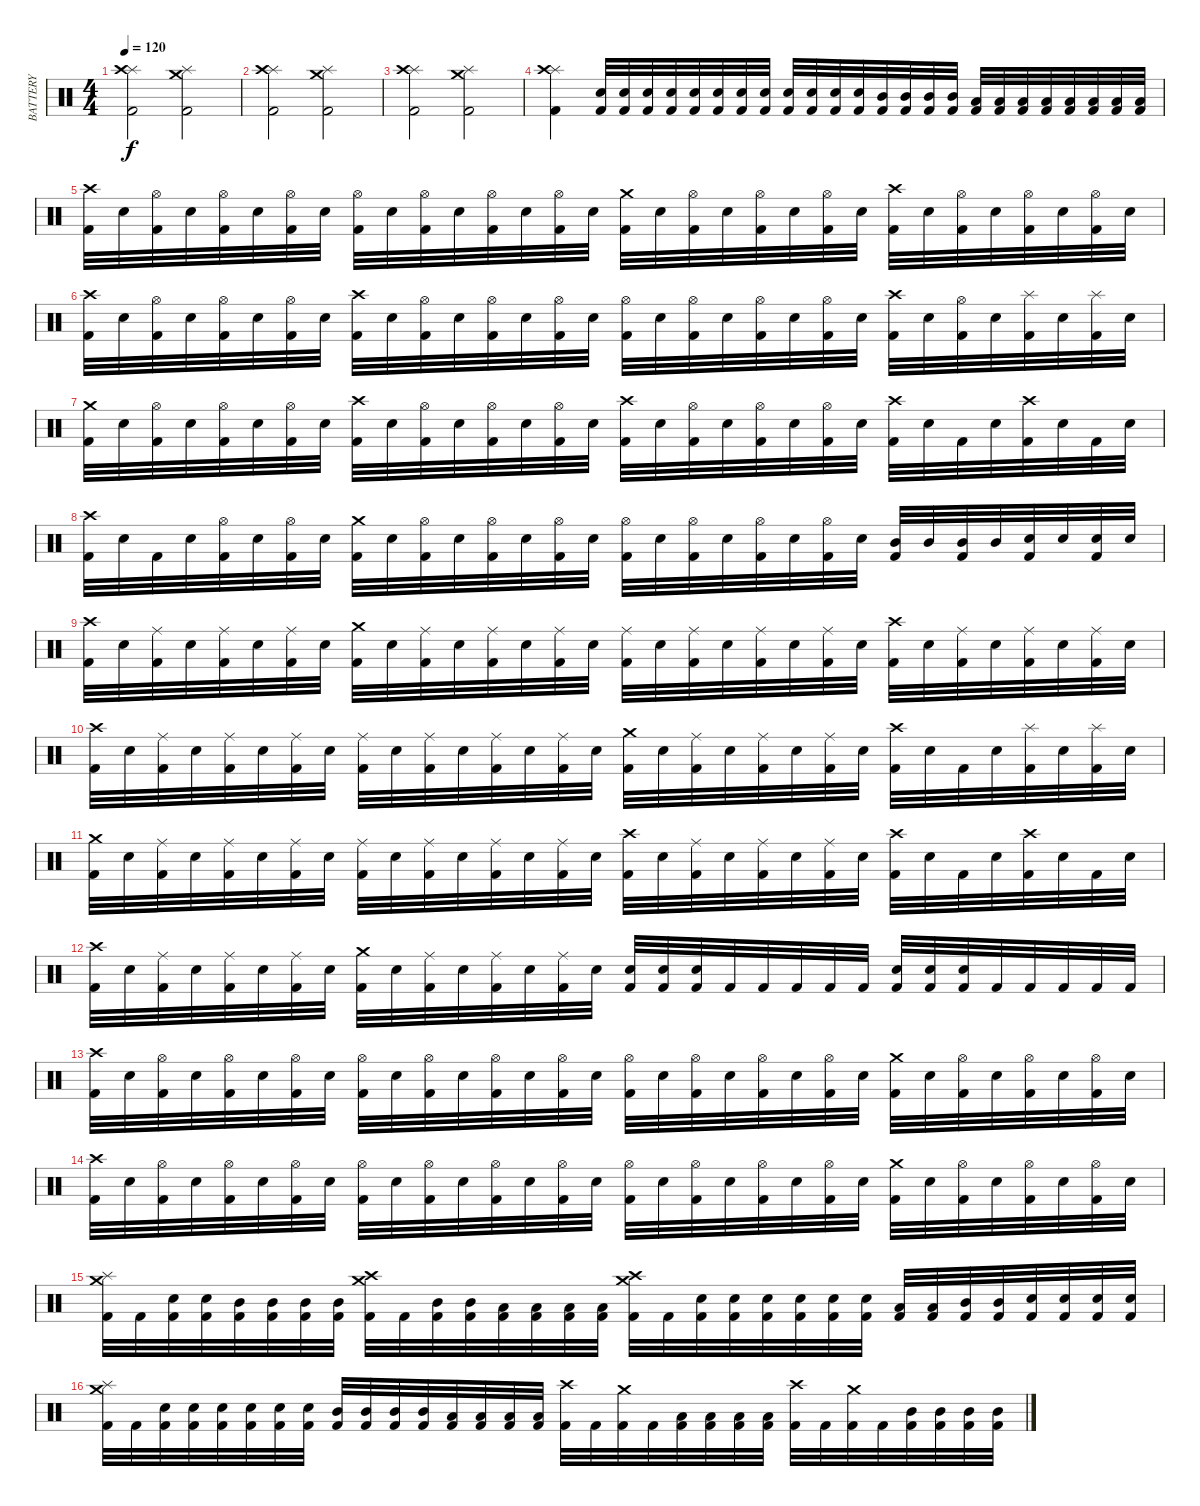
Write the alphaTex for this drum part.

\track ("BATTERY" "BATTERY") {instrument percussion}
\staff {score}
\articulation defaults
\ts (4 4)
\tempo 120
\clef neutral
\ks c
("Kick (hit) 2" "Splash (hit)" "Crash high (hit)").2{dy f} ("Kick (hit) 2" "Splash (hit)" "Crash medium (hit)").2 |
("Kick (hit) 2" "Splash (hit)" "Crash high (hit)").2 ("Kick (hit) 2" "Splash (hit)" "Crash medium (hit)").2 |
("Kick (hit) 2" "Splash (hit)" "Crash high (hit)").2 ("Kick (hit) 2" "Splash (hit)" "Crash medium (hit)").2 |
("Kick (hit) 2" "Splash (hit)" "Crash high (hit)").4 ("Kick (hit) 2" "Snare (hit) 2").32 ("Kick (hit) 2" "Snare (hit) 2").32 ("Kick (hit) 2" "Snare (hit) 2").32 ("Kick (hit) 2" "Snare (hit) 2").32 ("Kick (hit) 2" "Snare (hit) 2").32 ("Kick (hit) 2" "Snare (hit) 2").32 ("Kick (hit) 2" "Snare (hit) 2").32 ("Kick (hit) 2" "Snare (hit) 2").32 ("Kick (hit) 2" "Snare (hit) 2").32 ("Kick (hit) 2" "Snare (hit) 2").32 ("Kick (hit) 2" "Snare (hit) 2").32 ("Kick (hit) 2" "Snare (hit) 2").32 ("Kick (hit) 2" "Mid Tom (hit)").32 ("Kick (hit) 2" "Mid Tom (hit)").32 ("Kick (hit) 2" "Mid Tom (hit)").32 ("Kick (hit) 2" "Mid Tom (hit)").32 ("Kick (hit) 2" "Low Tom (hit)").32 ("Kick (hit) 2" "Low Tom (hit)").32 ("Kick (hit) 2" "Low Tom (hit)").32 ("Kick (hit) 2" "Low Tom (hit)").32 ("Kick (hit) 2" "Low Tom (hit)").32 ("Kick (hit) 2" "Low Tom (hit)").32 ("Kick (hit) 2" "Low Tom (hit)").32 ("Kick (hit) 2" "Low Tom (hit)").32 |
("Kick (hit) 2" "Crash high (hit)").32 "Snare (hit) 2".32 ("Kick (hit) 2" "Hi-Hat (open)").32 "Snare (hit) 2".32 ("Kick (hit) 2" "Hi-Hat (open)").32 "Snare (hit) 2".32 ("Kick (hit) 2" "Hi-Hat (open)").32 "Snare (hit) 2".32 ("Kick (hit) 2" "Hi-Hat (open)").32 "Snare (hit) 2".32 ("Kick (hit) 2" "Hi-Hat (open)").32 "Snare (hit) 2".32 ("Kick (hit) 2" "Hi-Hat (open)").32 "Snare (hit) 2".32 ("Kick (hit) 2" "Hi-Hat (open)").32 "Snare (hit) 2".32 ("Kick (hit) 2" "Crash medium (hit)").32 "Snare (hit) 2".32 ("Kick (hit) 2" "Hi-Hat (open)").32 "Snare (hit) 2".32 ("Kick (hit) 2" "Hi-Hat (open)").32 "Snare (hit) 2".32 ("Kick (hit) 2" "Hi-Hat (open)").32 "Snare (hit) 2".32 ("Kick (hit) 2" "Crash high (hit)").32 "Snare (hit) 2".32 ("Kick (hit) 2" "Hi-Hat (open)").32 "Snare (hit) 2".32 ("Kick (hit) 2" "Hi-Hat (open)").32 "Snare (hit) 2".32 ("Kick (hit) 2" "Hi-Hat (open)").32 "Snare (hit) 2".32 |
("Kick (hit) 2" "Crash high (hit)").32 "Snare (hit) 2".32 ("Kick (hit) 2" "Hi-Hat (open)").32 "Snare (hit) 2".32 ("Kick (hit) 2" "Hi-Hat (open)").32 "Snare (hit) 2".32 ("Kick (hit) 2" "Hi-Hat (open)").32 "Snare (hit) 2".32 ("Kick (hit) 2" "Crash high (hit)").32 "Snare (hit) 2".32 ("Kick (hit) 2" "Hi-Hat (open)").32 "Snare (hit) 2".32 ("Kick (hit) 2" "Hi-Hat (open)").32 "Snare (hit) 2".32 ("Kick (hit) 2" "Hi-Hat (open)").32 "Snare (hit) 2".32 ("Kick (hit) 2" "Hi-Hat (open)").32 "Snare (hit) 2".32 ("Kick (hit) 2" "Hi-Hat (open)").32 "Snare (hit) 2".32 ("Kick (hit) 2" "Hi-Hat (open)").32 "Snare (hit) 2".32 ("Kick (hit) 2" "Hi-Hat (open)").32 "Snare (hit) 2".32 ("Kick (hit) 2" "Crash high (hit)").32 "Snare (hit) 2".32 ("Kick (hit) 2" "Hi-Hat (open)").32 "Snare (hit) 2".32 ("Kick (hit) 2" "Splash (hit)").32 "Snare (hit) 2".32 ("Kick (hit) 2" "Splash (hit)").32 "Snare (hit) 2".32 |
("Kick (hit) 2" "Crash medium (hit)").32 "Snare (hit) 2".32 ("Kick (hit) 2" "Hi-Hat (open)").32 "Snare (hit) 2".32 ("Kick (hit) 2" "Hi-Hat (open)").32 "Snare (hit) 2".32 ("Kick (hit) 2" "Hi-Hat (open)").32 "Snare (hit) 2".32 ("Kick (hit) 2" "Crash high (hit)").32 "Snare (hit) 2".32 ("Kick (hit) 2" "Hi-Hat (open)").32 "Snare (hit) 2".32 ("Kick (hit) 2" "Hi-Hat (open)").32 "Snare (hit) 2".32 ("Kick (hit) 2" "Hi-Hat (open)").32 "Snare (hit) 2".32 ("Kick (hit) 2" "Crash high (hit)").32 "Snare (hit) 2".32 ("Kick (hit) 2" "Hi-Hat (open)").32 "Snare (hit) 2".32 ("Kick (hit) 2" "Hi-Hat (open)").32 "Snare (hit) 2".32 ("Kick (hit) 2" "Hi-Hat (open)").32 "Snare (hit) 2".32 ("Kick (hit) 2" "Crash high (hit)").32 "Snare (hit) 2".32 "Kick (hit) 2".32 "Snare (hit) 2".32 ("Kick (hit) 2" "Crash high (hit)").32 "Snare (hit) 2".32 "Kick (hit) 2".32 "Snare (hit) 2".32 |
("Kick (hit) 2" "Crash high (hit)").32 "Snare (hit) 2".32 "Kick (hit) 2".32 "Snare (hit) 2".32 ("Kick (hit) 2" "Hi-Hat (open)").32 "Snare (hit) 2".32 ("Kick (hit) 2" "Hi-Hat (open)").32 "Snare (hit) 2".32 ("Kick (hit) 2" "Crash medium (hit)").32 "Snare (hit) 2".32 ("Kick (hit) 2" "Hi-Hat (open)").32 "Snare (hit) 2".32 ("Kick (hit) 2" "Hi-Hat (open)").32 "Snare (hit) 2".32 ("Kick (hit) 2" "Hi-Hat (open)").32 "Snare (hit) 2".32 ("Kick (hit) 2" "Hi-Hat (open)").32 "Snare (hit) 2".32 ("Kick (hit) 2" "Hi-Hat (open)").32 "Snare (hit) 2".32 ("Kick (hit) 2" "Hi-Hat (open)").32 "Snare (hit) 2".32 ("Kick (hit) 2" "Hi-Hat (open)").32 "Snare (hit) 2".32 ("Kick (hit) 2" "Mid Tom (hit)").32 "Mid Tom (hit)".32 ("Kick (hit) 2" "Mid Tom (hit)").32 "Mid Tom (hit)".32 ("Kick (hit) 2" "Snare (hit) 2").32 "Snare (hit) 2".32 ("Kick (hit) 2" "Snare (hit) 2").32 "Snare (hit) 2".32 |
("Kick (hit) 2" "Crash high (hit)").32 "Snare (hit) 2".32 ("Kick (hit) 2" "Ride (middle)").32 "Snare (hit) 2".32 ("Kick (hit) 2" "Ride (middle)").32 "Snare (hit) 2".32 ("Kick (hit) 2" "Ride (middle)").32 "Snare (hit) 2".32 ("Kick (hit) 2" "Crash medium (hit)").32 "Snare (hit) 2".32 ("Kick (hit) 2" "Ride (middle)").32 "Snare (hit) 2".32 ("Kick (hit) 2" "Ride (middle)").32 "Snare (hit) 2".32 ("Kick (hit) 2" "Ride (middle)").32 "Snare (hit) 2".32 ("Kick (hit) 2" "Ride (middle)").32 "Snare (hit) 2".32 ("Kick (hit) 2" "Ride (middle)").32 "Snare (hit) 2".32 ("Kick (hit) 2" "Ride (middle)").32 "Snare (hit) 2".32 ("Kick (hit) 2" "Ride (middle)").32 "Snare (hit) 2".32 ("Kick (hit) 2" "Crash high (hit)").32 "Snare (hit) 2".32 ("Kick (hit) 2" "Ride (middle)").32 "Snare (hit) 2".32 ("Kick (hit) 2" "Ride (middle)").32 "Snare (hit) 2".32 ("Kick (hit) 2" "Ride (middle)").32 "Snare (hit) 2".32 |
("Kick (hit) 2" "Crash high (hit)").32 "Snare (hit) 2".32 ("Kick (hit) 2" "Ride (middle)").32 "Snare (hit) 2".32 ("Kick (hit) 2" "Ride (middle)").32 "Snare (hit) 2".32 ("Kick (hit) 2" "Ride (middle)").32 "Snare (hit) 2".32 ("Kick (hit) 2" "Ride (middle)").32 "Snare (hit) 2".32 ("Kick (hit) 2" "Ride (middle)").32 "Snare (hit) 2".32 ("Kick (hit) 2" "Ride (middle)").32 "Snare (hit) 2".32 ("Kick (hit) 2" "Ride (middle)").32 "Snare (hit) 2".32 ("Kick (hit) 2" "Crash medium (hit)").32 "Snare (hit) 2".32 ("Kick (hit) 2" "Ride (middle)").32 "Snare (hit) 2".32 ("Kick (hit) 2" "Ride (middle)").32 "Snare (hit) 2".32 ("Kick (hit) 2" "Ride (middle)").32 "Snare (hit) 2".32 ("Kick (hit) 2" "Crash high (hit)").32 "Snare (hit) 2".32 "Kick (hit) 2".32 "Snare (hit) 2".32 ("Kick (hit) 2" "Splash (hit)").32 "Snare (hit) 2".32 ("Kick (hit) 2" "Splash (hit)").32 "Snare (hit) 2".32 |
("Kick (hit) 2" "Crash medium (hit)").32 "Snare (hit) 2".32 ("Kick (hit) 2" "Ride (middle)").32 "Snare (hit) 2".32 ("Kick (hit) 2" "Ride (middle)").32 "Snare (hit) 2".32 ("Kick (hit) 2" "Ride (middle)").32 "Snare (hit) 2".32 ("Kick (hit) 2" "Ride (middle)").32 "Snare (hit) 2".32 ("Kick (hit) 2" "Ride (middle)").32 "Snare (hit) 2".32 ("Kick (hit) 2" "Ride (middle)").32 "Snare (hit) 2".32 ("Kick (hit) 2" "Ride (middle)").32 "Snare (hit) 2".32 ("Kick (hit) 2" "Crash high (hit)").32 "Snare (hit) 2".32 ("Kick (hit) 2" "Ride (middle)").32 "Snare (hit) 2".32 ("Kick (hit) 2" "Ride (middle)").32 "Snare (hit) 2".32 ("Kick (hit) 2" "Ride (middle)").32 "Snare (hit) 2".32 ("Kick (hit) 2" "Crash high (hit)").32 "Snare (hit) 2".32 "Kick (hit) 2".32 "Snare (hit) 2".32 ("Kick (hit) 2" "Crash high (hit)").32 "Snare (hit) 2".32 "Kick (hit) 2".32 "Snare (hit) 2".32 |
("Kick (hit) 2" "Crash high (hit)").32 "Snare (hit) 2".32 ("Kick (hit) 2" "Ride (middle)").32 "Snare (hit) 2".32 ("Kick (hit) 2" "Ride (middle)").32 "Snare (hit) 2".32 ("Kick (hit) 2" "Ride (middle)").32 "Snare (hit) 2".32 ("Kick (hit) 2" "Crash medium (hit)").32 "Snare (hit) 2".32 ("Kick (hit) 2" "Ride (middle)").32 "Snare (hit) 2".32 ("Kick (hit) 2" "Ride (middle)").32 "Snare (hit) 2".32 ("Kick (hit) 2" "Ride (middle)").32 "Snare (hit) 2".32 ("Kick (hit) 2" "Snare (hit) 2").32 ("Kick (hit) 2" "Snare (hit) 2").32 ("Kick (hit) 2" "Snare (hit) 2").32 "Kick (hit) 2".32 "Kick (hit) 2".32 "Kick (hit) 2".32 "Kick (hit) 2".32 "Kick (hit) 2".32 ("Kick (hit) 2" "Snare (hit) 2").32 ("Kick (hit) 2" "Snare (hit) 2").32 ("Kick (hit) 2" "Snare (hit) 2").32 "Kick (hit) 2".32 "Kick (hit) 2".32 "Kick (hit) 2".32 "Kick (hit) 2".32 "Kick (hit) 2".32 |
("Kick (hit) 2" "Crash high (hit)").32 "Snare (hit) 2".32 ("Kick (hit) 2" "Hi-Hat (open)").32 "Snare (hit) 2".32 ("Kick (hit) 2" "Hi-Hat (open)").32 "Snare (hit) 2".32 ("Kick (hit) 2" "Hi-Hat (open)").32 "Snare (hit) 2".32 ("Kick (hit) 2" "Hi-Hat (open)").32 "Snare (hit) 2".32 ("Kick (hit) 2" "Hi-Hat (open)").32 "Snare (hit) 2".32 ("Kick (hit) 2" "Hi-Hat (open)").32 "Snare (hit) 2".32 ("Kick (hit) 2" "Hi-Hat (open)").32 "Snare (hit) 2".32 ("Kick (hit) 2" "Hi-Hat (open)").32 "Snare (hit) 2".32 ("Kick (hit) 2" "Hi-Hat (open)").32 "Snare (hit) 2".32 ("Kick (hit) 2" "Hi-Hat (open)").32 "Snare (hit) 2".32 ("Kick (hit) 2" "Hi-Hat (open)").32 "Snare (hit) 2".32 ("Kick (hit) 2" "Crash medium (hit)").32 "Snare (hit) 2".32 ("Kick (hit) 2" "Hi-Hat (open)").32 "Snare (hit) 2".32 ("Kick (hit) 2" "Hi-Hat (open)").32 "Snare (hit) 2".32 ("Kick (hit) 2" "Hi-Hat (open)").32 "Snare (hit) 2".32 |
("Kick (hit) 2" "Crash high (hit)").32 "Snare (hit) 2".32 ("Kick (hit) 2" "Hi-Hat (open)").32 "Snare (hit) 2".32 ("Kick (hit) 2" "Hi-Hat (open)").32 "Snare (hit) 2".32 ("Kick (hit) 2" "Hi-Hat (open)").32 "Snare (hit) 2".32 ("Kick (hit) 2" "Hi-Hat (open)").32 "Snare (hit) 2".32 ("Kick (hit) 2" "Hi-Hat (open)").32 "Snare (hit) 2".32 ("Kick (hit) 2" "Hi-Hat (open)").32 "Snare (hit) 2".32 ("Kick (hit) 2" "Hi-Hat (open)").32 "Snare (hit) 2".32 ("Kick (hit) 2" "Hi-Hat (open)").32 "Snare (hit) 2".32 ("Kick (hit) 2" "Hi-Hat (open)").32 "Snare (hit) 2".32 ("Kick (hit) 2" "Hi-Hat (open)").32 "Snare (hit) 2".32 ("Kick (hit) 2" "Hi-Hat (open)").32 "Snare (hit) 2".32 ("Kick (hit) 2" "Crash medium (hit)").32 "Snare (hit) 2".32 ("Kick (hit) 2" "Hi-Hat (open)").32 "Snare (hit) 2".32 ("Kick (hit) 2" "Hi-Hat (open)").32 "Snare (hit) 2".32 ("Kick (hit) 2" "Hi-Hat (open)").32 "Snare (hit) 2".32 |
("Kick (hit) 2" "Splash (hit)" "Crash medium (hit)").32 "Kick (hit) 2".32 ("Kick (hit) 2" "Snare (hit) 2").32 ("Kick (hit) 2" "Snare (hit) 2").32 ("Kick (hit) 2" "Mid Tom (hit)").32 ("Kick (hit) 2" "Mid Tom (hit)").32 ("Kick (hit) 2" "Mid Tom (hit)").32 ("Kick (hit) 2" "Mid Tom (hit)").32 ("Kick (hit) 2" "Crash medium (hit)" "Crash high (hit)").32 "Kick (hit) 2".32 ("Kick (hit) 2" "Mid Tom (hit)").32 ("Kick (hit) 2" "Mid Tom (hit)").32 ("Kick (hit) 2" "Low Tom (hit)").32 ("Kick (hit) 2" "Low Tom (hit)").32 ("Kick (hit) 2" "Low Tom (hit)").32 ("Kick (hit) 2" "Low Tom (hit)").32 ("Kick (hit) 2" "Crash high (hit)" "Crash medium (hit)").32 "Kick (hit) 2".32 ("Kick (hit) 2" "Snare (hit) 2").32 ("Kick (hit) 2" "Snare (hit) 2").32 ("Kick (hit) 2" "Snare (hit) 2").32 ("Kick (hit) 2" "Snare (hit) 2").32 ("Kick (hit) 2" "Snare (hit) 2").32 ("Kick (hit) 2" "Snare (hit) 2").32 ("Kick (hit) 2" "Low Tom (hit)").32 ("Kick (hit) 2" "Low Tom (hit)").32 ("Kick (hit) 2" "Mid Tom (hit)").32 ("Kick (hit) 2" "Mid Tom (hit)").32 ("Kick (hit) 2" "Snare (hit) 2").32 ("Kick (hit) 2" "Snare (hit) 2").32 ("Kick (hit) 2" "Snare (hit) 2").32 ("Kick (hit) 2" "Snare (hit) 2").32 |
("Kick (hit) 2" "Splash (hit)" "Crash medium (hit)").32 "Kick (hit) 2".32 ("Kick (hit) 2" "Snare (hit) 2").32 ("Kick (hit) 2" "Snare (hit) 2").32 ("Kick (hit) 2" "Snare (hit) 2").32 ("Kick (hit) 2" "Snare (hit) 2").32 ("Kick (hit) 2" "Snare (hit) 2").32 ("Kick (hit) 2" "Snare (hit) 2").32 ("Kick (hit) 2" "Mid Tom (hit)").32 ("Kick (hit) 2" "Mid Tom (hit)").32 ("Kick (hit) 2" "Mid Tom (hit)").32 ("Kick (hit) 2" "Mid Tom (hit)").32 ("Kick (hit) 2" "Low Tom (hit)").32 ("Kick (hit) 2" "Low Tom (hit)").32 ("Kick (hit) 2" "Low Tom (hit)").32 ("Kick (hit) 2" "Low Tom (hit)").32 ("Kick (hit) 2" "Crash high (hit)").32 "Kick (hit) 2".32 ("Kick (hit) 2" "Crash medium (hit)").32 "Kick (hit) 2".32 ("Kick (hit) 2" "Low Tom (hit)").32 ("Kick (hit) 2" "Low Tom (hit)").32 ("Kick (hit) 2" "Low Tom (hit)").32 ("Kick (hit) 2" "Low Tom (hit)").32 ("Kick (hit) 2" "Crash high (hit)").32 "Kick (hit) 2".32 ("Kick (hit) 2" "Crash medium (hit)").32 "Kick (hit) 2".32 ("Kick (hit) 2" "Mid Tom (hit)").32 ("Kick (hit) 2" "Mid Tom (hit)").32 ("Kick (hit) 2" "Mid Tom (hit)").32 ("Kick (hit) 2" "Mid Tom (hit)").32
